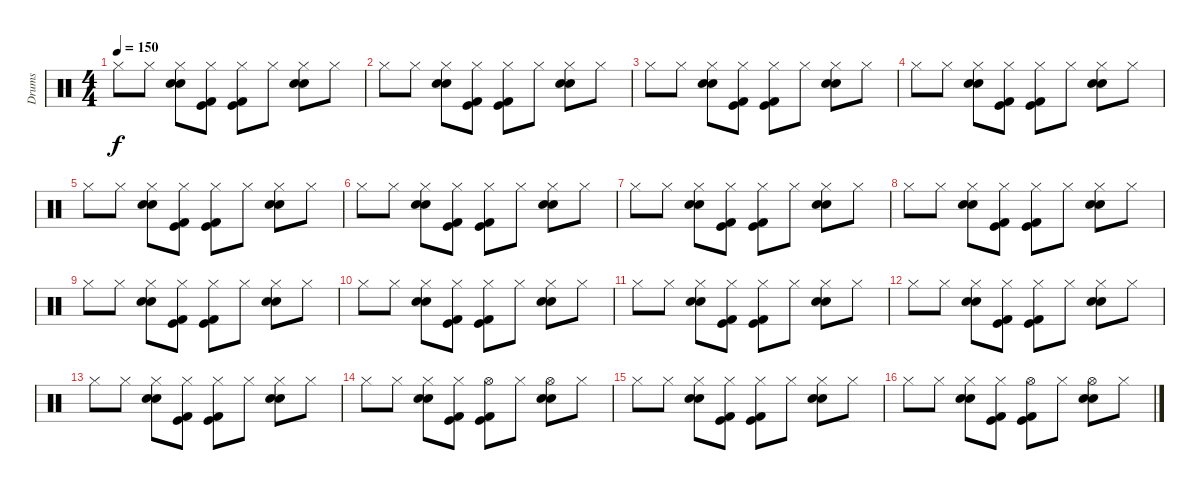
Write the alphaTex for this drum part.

\track ("Drums" "Drums") {instrument percussion}
\staff {score}
\articulation defaults
\ts (4 4)
\tempo 150
\clef neutral
\ks c "Hi-Hat (closed)".8{dy f} "Hi-Hat (closed)".8
("Hi-Hat (closed)" "Snare (hit) 2" "Electric Snare (hit)").8 ("Hi-Hat (closed)" "Kick (hit) 2" "Kick (hit)").8 ("Hi-Hat (closed)" "Kick (hit) 2" "Kick (hit)").8 "Hi-Hat (closed)".8 ("Hi-Hat (closed)" "Snare (hit) 2" "Electric Snare (hit)").8 "Hi-Hat (closed)".8 |
"Hi-Hat (closed)".8 "Hi-Hat (closed)".8 ("Hi-Hat (closed)" "Snare (hit) 2" "Electric Snare (hit)").8 ("Hi-Hat (closed)" "Kick (hit) 2" "Kick (hit)").8 ("Hi-Hat (closed)" "Kick (hit) 2" "Kick (hit)").8 "Hi-Hat (closed)".8 ("Hi-Hat (closed)" "Snare (hit) 2" "Electric Snare (hit)").8 "Hi-Hat (closed)".8 |
"Hi-Hat (closed)".8 "Hi-Hat (closed)".8 ("Hi-Hat (closed)" "Snare (hit) 2" "Electric Snare (hit)").8 ("Hi-Hat (closed)" "Kick (hit) 2" "Kick (hit)").8 ("Hi-Hat (closed)" "Kick (hit) 2" "Kick (hit)").8 "Hi-Hat (closed)".8 ("Hi-Hat (closed)" "Snare (hit) 2" "Electric Snare (hit)").8 "Hi-Hat (closed)".8 |
"Hi-Hat (closed)".8 "Hi-Hat (closed)".8 ("Hi-Hat (closed)" "Snare (hit) 2" "Electric Snare (hit)").8 ("Hi-Hat (closed)" "Kick (hit) 2" "Kick (hit)").8 ("Hi-Hat (closed)" "Kick (hit) 2" "Kick (hit)").8 "Hi-Hat (closed)".8 ("Hi-Hat (closed)" "Snare (hit) 2" "Electric Snare (hit)").8 "Hi-Hat (closed)".8 |
"Hi-Hat (closed)".8 "Hi-Hat (closed)".8 ("Hi-Hat (closed)" "Snare (hit) 2" "Electric Snare (hit)").8 ("Hi-Hat (closed)" "Kick (hit) 2" "Kick (hit)").8 ("Hi-Hat (closed)" "Kick (hit) 2" "Kick (hit)").8 "Hi-Hat (closed)".8 ("Hi-Hat (closed)" "Snare (hit) 2" "Electric Snare (hit)").8 "Hi-Hat (closed)".8 |
"Hi-Hat (closed)".8 "Hi-Hat (closed)".8 ("Hi-Hat (closed)" "Snare (hit) 2" "Electric Snare (hit)").8 ("Hi-Hat (closed)" "Kick (hit) 2" "Kick (hit)").8 ("Hi-Hat (closed)" "Kick (hit) 2" "Kick (hit)").8 "Hi-Hat (closed)".8 ("Hi-Hat (closed)" "Snare (hit) 2" "Electric Snare (hit)").8 "Hi-Hat (closed)".8 |
"Hi-Hat (closed)".8 "Hi-Hat (closed)".8 ("Hi-Hat (closed)" "Snare (hit) 2" "Electric Snare (hit)").8 ("Hi-Hat (closed)" "Kick (hit) 2" "Kick (hit)").8 ("Hi-Hat (closed)" "Kick (hit) 2" "Kick (hit)").8 "Hi-Hat (closed)".8 ("Hi-Hat (closed)" "Snare (hit) 2" "Electric Snare (hit)").8 "Hi-Hat (closed)".8 |
"Hi-Hat (closed)".8 "Hi-Hat (closed)".8 ("Hi-Hat (closed)" "Snare (hit) 2" "Electric Snare (hit)").8 ("Hi-Hat (closed)" "Kick (hit) 2" "Kick (hit)").8 ("Hi-Hat (closed)" "Kick (hit) 2" "Kick (hit)").8 "Hi-Hat (closed)".8 ("Hi-Hat (closed)" "Snare (hit) 2" "Electric Snare (hit)").8 "Hi-Hat (closed)".8 |
"Hi-Hat (closed)".8 "Hi-Hat (closed)".8 ("Hi-Hat (closed)" "Snare (hit) 2" "Electric Snare (hit)").8 ("Hi-Hat (closed)" "Kick (hit) 2" "Kick (hit)").8 ("Hi-Hat (closed)" "Kick (hit) 2" "Kick (hit)").8 "Hi-Hat (closed)".8 ("Hi-Hat (closed)" "Snare (hit) 2" "Electric Snare (hit)").8 "Hi-Hat (closed)".8 |
"Hi-Hat (closed)".8 "Hi-Hat (closed)".8 ("Hi-Hat (closed)" "Snare (hit) 2" "Electric Snare (hit)").8 ("Hi-Hat (closed)" "Kick (hit) 2" "Kick (hit)").8 ("Hi-Hat (closed)" "Kick (hit) 2" "Kick (hit)").8 "Hi-Hat (closed)".8 ("Hi-Hat (closed)" "Snare (hit) 2" "Electric Snare (hit)").8 "Hi-Hat (closed)".8 |
"Hi-Hat (closed)".8 "Hi-Hat (closed)".8 ("Hi-Hat (closed)" "Snare (hit) 2" "Electric Snare (hit)").8 ("Hi-Hat (closed)" "Kick (hit) 2" "Kick (hit)").8 ("Hi-Hat (closed)" "Kick (hit) 2" "Kick (hit)").8 "Hi-Hat (closed)".8 ("Hi-Hat (closed)" "Snare (hit) 2" "Electric Snare (hit)").8 "Hi-Hat (closed)".8 |
"Hi-Hat (closed)".8 "Hi-Hat (closed)".8 ("Hi-Hat (closed)" "Snare (hit) 2" "Electric Snare (hit)").8 ("Hi-Hat (closed)" "Kick (hit) 2" "Kick (hit)").8 ("Hi-Hat (closed)" "Kick (hit) 2" "Kick (hit)").8 "Hi-Hat (closed)".8 ("Hi-Hat (closed)" "Snare (hit) 2" "Electric Snare (hit)").8 "Hi-Hat (closed)".8 |
"Hi-Hat (closed)".8 "Hi-Hat (closed)".8 ("Hi-Hat (closed)" "Snare (hit) 2" "Electric Snare (hit)").8 ("Hi-Hat (closed)" "Kick (hit) 2" "Kick (hit)").8 ("Hi-Hat (closed)" "Kick (hit) 2" "Kick (hit)").8 "Hi-Hat (closed)".8 ("Hi-Hat (closed)" "Snare (hit) 2" "Electric Snare (hit)").8 "Hi-Hat (closed)".8 |
"Hi-Hat (closed)".8 "Hi-Hat (closed)".8 ("Hi-Hat (closed)" "Snare (hit) 2" "Electric Snare (hit)").8 ("Hi-Hat (closed)" "Kick (hit) 2" "Kick (hit)").8 ("Hi-Hat (open)" "Kick (hit) 2" "Kick (hit)").8 "Hi-Hat (closed)".8 ("Hi-Hat (open)" "Snare (hit) 2" "Electric Snare (hit)").8 "Hi-Hat (closed)".8 |
"Hi-Hat (closed)".8 "Hi-Hat (closed)".8 ("Hi-Hat (closed)" "Snare (hit) 2" "Electric Snare (hit)").8 ("Hi-Hat (closed)" "Kick (hit) 2" "Kick (hit)").8 ("Hi-Hat (closed)" "Kick (hit) 2" "Kick (hit)").8 "Hi-Hat (closed)".8 ("Hi-Hat (closed)" "Snare (hit) 2" "Electric Snare (hit)").8 "Hi-Hat (closed)".8 |
"Hi-Hat (closed)".8 "Hi-Hat (closed)".8 ("Hi-Hat (closed)" "Snare (hit) 2" "Electric Snare (hit)").8 ("Hi-Hat (closed)" "Kick (hit) 2" "Kick (hit)").8 ("Hi-Hat (open)" "Kick (hit) 2" "Kick (hit)").8 "Hi-Hat (closed)".8 ("Hi-Hat (open)" "Snare (hit) 2" "Electric Snare (hit)").8 "Hi-Hat (closed)".8
